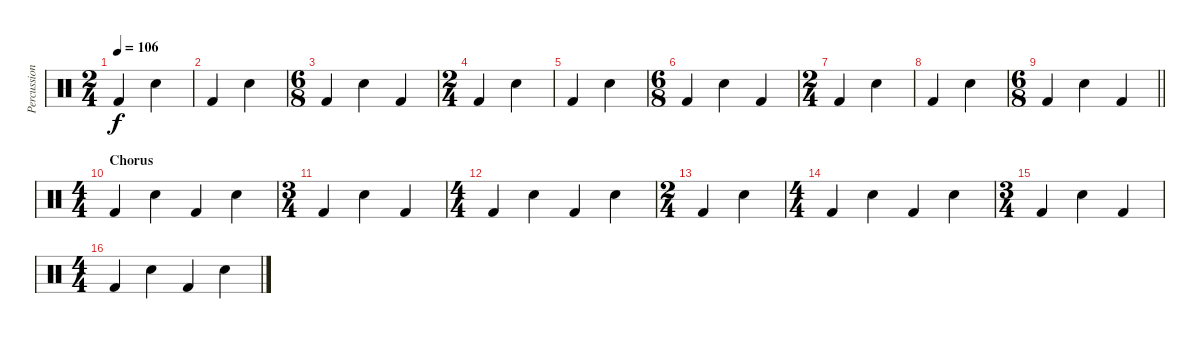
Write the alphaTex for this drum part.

\track ("Percussion" "Percussion") {instrument percussion}
\staff {score}
\articulation defaults
\ts (2 4)
\tempo 106
\clef neutral
\ks c "Kick (hit) 2".4{dy f} "Snare (hit) 2".4
|
"Kick (hit) 2".4 "Snare (hit) 2".4 |
\ts (6 8)
"Kick (hit) 2".4 "Snare (hit) 2".4 "Kick (hit) 2".4 |
\ts (2 4)
"Kick (hit) 2".4 "Snare (hit) 2".4 |
"Kick (hit) 2".4 "Snare (hit) 2".4 |
\ts (6 8)
"Kick (hit) 2".4 "Snare (hit) 2".4 "Kick (hit) 2".4 |
\ts (2 4)
"Kick (hit) 2".4 "Snare (hit) 2".4 |
"Kick (hit) 2".4 "Snare (hit) 2".4 |
\ts (6 8)
\barLineRight lightlight "Kick (hit) 2".4 "Snare (hit) 2".4 "Kick (hit) 2".4
|
\ts (4 4)
\section ("" "Chorus")
"Kick (hit) 2".4 "Snare (hit) 2".4 "Kick (hit) 2".4 "Snare (hit) 2".4 |
\ts (3 4)
"Kick (hit) 2".4 "Snare (hit) 2".4 "Kick (hit) 2".4 |
\ts (4 4)
"Kick (hit) 2".4 "Snare (hit) 2".4 "Kick (hit) 2".4 "Snare (hit) 2".4 |
\ts (2 4)
"Kick (hit) 2".4 "Snare (hit) 2".4 |
\ts (4 4)
"Kick (hit) 2".4 "Snare (hit) 2".4 "Kick (hit) 2".4 "Snare (hit) 2".4 |
\ts (3 4)
"Kick (hit) 2".4 "Snare (hit) 2".4 "Kick (hit) 2".4 |
\ts (4 4)
"Kick (hit) 2".4 "Snare (hit) 2".4 "Kick (hit) 2".4 "Snare (hit) 2".4
